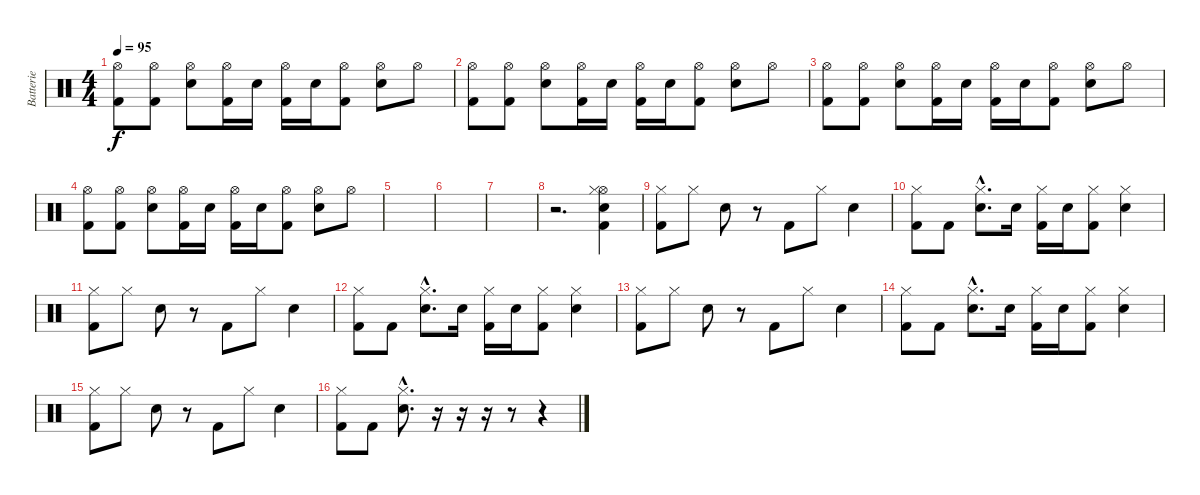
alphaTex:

\track ("Batterie" "Batterie") {instrument percussion}
\staff {score}
\articulation defaults
\ts (4 4)
\tempo 95
\clef neutral
\ks c
("Kick (hit) 2" "Hi-Hat (open)").8{dy f} ("Kick (hit) 2" "Hi-Hat (open)").8 ("Electric Snare (hit)" "Hi-Hat (open)").8 ("Kick (hit) 2" "Hi-Hat (open)").16 "Electric Snare (hit)".16 ("Kick (hit) 2" "Hi-Hat (open)").16 "Electric Snare (hit)".16 ("Kick (hit) 2" "Hi-Hat (open)").8 ("Electric Snare (hit)" "Hi-Hat (open)").8 "Hi-Hat (open)".8 |
("Kick (hit) 2" "Hi-Hat (open)").8 ("Kick (hit) 2" "Hi-Hat (open)").8 ("Electric Snare (hit)" "Hi-Hat (open)").8 ("Kick (hit) 2" "Hi-Hat (open)").16 "Electric Snare (hit)".16 ("Kick (hit) 2" "Hi-Hat (open)").16 "Electric Snare (hit)".16 ("Kick (hit) 2" "Hi-Hat (open)").8 ("Electric Snare (hit)" "Hi-Hat (open)").8 "Hi-Hat (open)".8 |
("Kick (hit) 2" "Hi-Hat (open)").8 ("Kick (hit) 2" "Hi-Hat (open)").8 ("Electric Snare (hit)" "Hi-Hat (open)").8 ("Kick (hit) 2" "Hi-Hat (open)").16 "Electric Snare (hit)".16 ("Kick (hit) 2" "Hi-Hat (open)").16 "Electric Snare (hit)".16 ("Kick (hit) 2" "Hi-Hat (open)").8 ("Electric Snare (hit)" "Hi-Hat (open)").8 "Hi-Hat (open)".8 |
("Kick (hit) 2" "Hi-Hat (open)").8 ("Kick (hit) 2" "Hi-Hat (open)").8 ("Electric Snare (hit)" "Hi-Hat (open)").8 ("Kick (hit) 2" "Hi-Hat (open)").16 "Electric Snare (hit)".16 ("Kick (hit) 2" "Hi-Hat (open)").16 "Electric Snare (hit)".16 ("Kick (hit) 2" "Hi-Hat (open)").8 ("Electric Snare (hit)" "Hi-Hat (open)").8 "Hi-Hat (open)".8 |
|
|
|
r.2{d} ("Kick (hit) 2" "Hi-Hat (open)" "Electric Snare (hit)" "Hi-Hat (closed)").4 |
("Kick (hit) 2" "Hi-Hat (closed)").8 "Hi-Hat (closed)".8 "Electric Snare (hit)".8 r.8 "Kick (hit) 2".8 "Hi-Hat (closed)".8 "Electric Snare (hit)".4 |
("Kick (hit) 2" "Hi-Hat (closed)").8 "Kick (hit) 2".8 ("Electric Snare (hit)"{hac} "Hi-Hat (closed)"{hac}).8{d} "Electric Snare (hit)".16 ("Kick (hit) 2" "Hi-Hat (closed)").16 "Electric Snare (hit)".16 ("Kick (hit) 2" "Hi-Hat (closed)").8 ("Electric Snare (hit)" "Hi-Hat (closed)").4 |
("Kick (hit) 2" "Hi-Hat (closed)").8 "Hi-Hat (closed)".8 "Electric Snare (hit)".8 r.8 "Kick (hit) 2".8 "Hi-Hat (closed)".8 "Electric Snare (hit)".4 |
("Kick (hit) 2" "Hi-Hat (closed)").8 "Kick (hit) 2".8 ("Electric Snare (hit)"{hac} "Hi-Hat (closed)"{hac}).8{d} "Electric Snare (hit)".16 ("Kick (hit) 2" "Hi-Hat (closed)").16 "Electric Snare (hit)".16 ("Kick (hit) 2" "Hi-Hat (closed)").8 ("Electric Snare (hit)" "Hi-Hat (closed)").4 |
("Kick (hit) 2" "Hi-Hat (closed)").8 "Hi-Hat (closed)".8 "Electric Snare (hit)".8 r.8 "Kick (hit) 2".8 "Hi-Hat (closed)".8 "Electric Snare (hit)".4 |
("Kick (hit) 2" "Hi-Hat (closed)").8 "Kick (hit) 2".8 ("Electric Snare (hit)"{hac} "Hi-Hat (closed)"{hac}).8{d} "Electric Snare (hit)".16 ("Kick (hit) 2" "Hi-Hat (closed)").16 "Electric Snare (hit)".16 ("Kick (hit) 2" "Hi-Hat (closed)").8 ("Electric Snare (hit)" "Hi-Hat (closed)").4 |
("Kick (hit) 2" "Hi-Hat (closed)").8 "Hi-Hat (closed)".8 "Electric Snare (hit)".8 r.8 "Kick (hit) 2".8 "Hi-Hat (closed)".8 "Electric Snare (hit)".4 |
("Kick (hit) 2" "Hi-Hat (closed)").8 "Kick (hit) 2".8 ("Electric Snare (hit)"{hac} "Hi-Hat (closed)"{hac}).8{d} r.16 r.16 r.16 r.8 r.4
